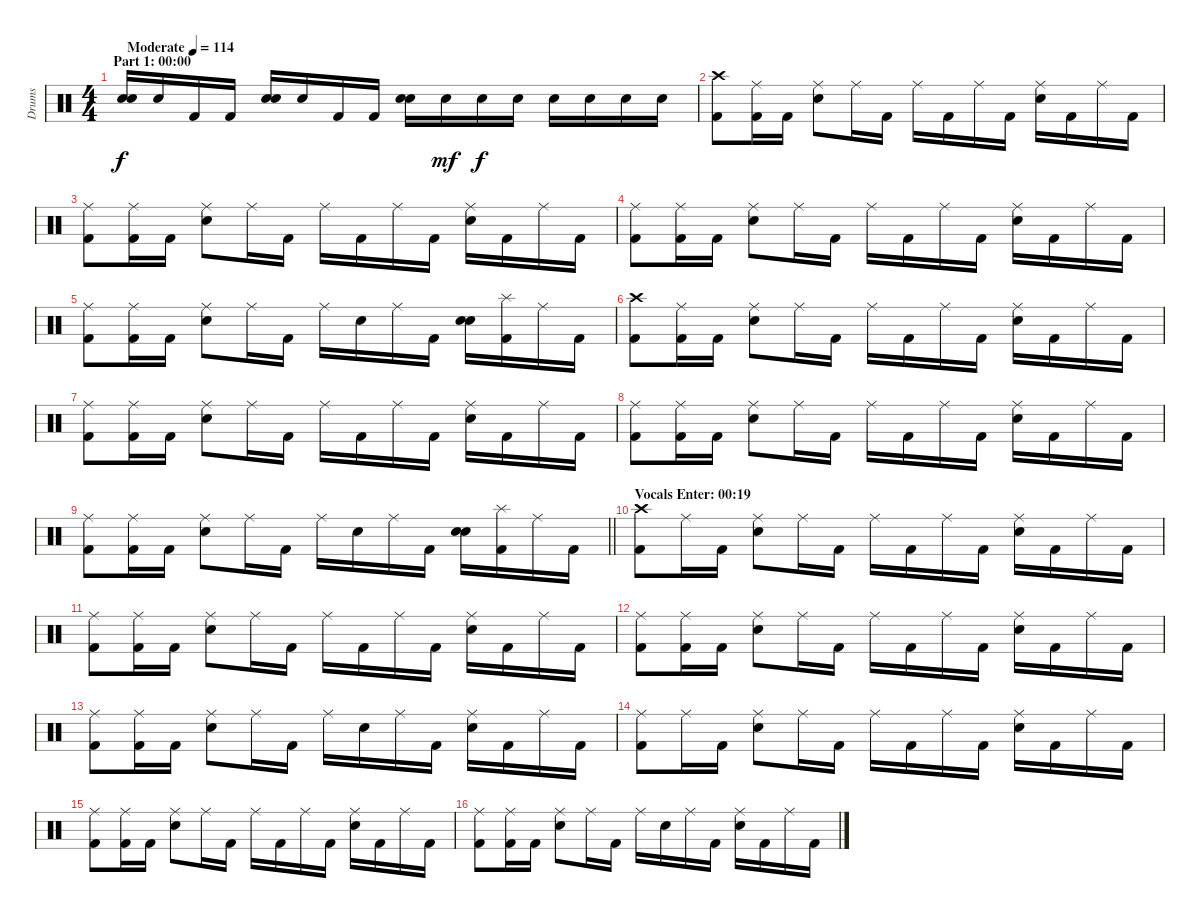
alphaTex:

\track ("Drums" "Drums") {instrument percussion}
\staff {score}
\articulation defaults
\ts (4 4)
\section ("" "Part 1: 00:00")
\tempo (114 "Moderate")
\clef neutral
\ks c
("Electric Snare (hit)" "Electric Snare (hit)").16{bd 60 dy f} "Electric Snare (hit)".16 "Kick (hit) 2".16 "Kick (hit) 2".16 ("Electric Snare (hit)" "Electric Snare (hit)").16{bd 60} "Electric Snare (hit)".16 "Kick (hit) 2".16 "Kick (hit) 2".16 ("Electric Snare (hit)" "Electric Snare (hit)").16{bd 60} "Electric Snare (hit)".16{dy mf} "Electric Snare (hit)".16{dy f} "Electric Snare (hit)".16 "Electric Snare (hit)".16 "Electric Snare (hit)".16 "Electric Snare (hit)".16 "Electric Snare (hit)".16 |
("Crash high (hit)" "Kick (hit) 2").8 ("Ride (middle)" "Kick (hit) 2").16 "Kick (hit) 2".16 ("Ride (middle)" "Electric Snare (hit)").8 "Ride (middle)".16 "Kick (hit) 2".16 "Ride (middle)".16 "Kick (hit) 2".16 "Ride (middle)".16 "Kick (hit) 2".16 ("Ride (middle)" "Electric Snare (hit)").16 "Kick (hit) 2".16 "Ride (middle)".16 "Kick (hit) 2".16 |
("Ride (middle)" "Kick (hit) 2").8 ("Ride (middle)" "Kick (hit) 2").16 "Kick (hit) 2".16 ("Ride (middle)" "Electric Snare (hit)").8 "Ride (middle)".16 "Kick (hit) 2".16 "Ride (middle)".16 "Kick (hit) 2".16 "Ride (middle)".16 "Kick (hit) 2".16 ("Ride (middle)" "Electric Snare (hit)").16 "Kick (hit) 2".16 "Ride (middle)".16 "Kick (hit) 2".16 |
("Ride (middle)" "Kick (hit) 2").8 ("Ride (middle)" "Kick (hit) 2").16 "Kick (hit) 2".16 ("Ride (middle)" "Electric Snare (hit)").8 "Ride (middle)".16 "Kick (hit) 2".16 "Ride (middle)".16 "Kick (hit) 2".16 "Ride (middle)".16 "Kick (hit) 2".16 ("Ride (middle)" "Electric Snare (hit)").16 "Kick (hit) 2".16 "Ride (middle)".16 "Kick (hit) 2".16 |
("Ride (middle)" "Kick (hit) 2").8 ("Ride (middle)" "Kick (hit) 2").16 "Kick (hit) 2".16 ("Ride (middle)" "Electric Snare (hit)").8 "Ride (middle)".16 "Kick (hit) 2".16 "Ride (middle)".16 "Electric Snare (hit)".16 "Ride (middle)".16 "Kick (hit) 2".16 ("Electric Snare (hit)" "Electric Snare (hit)").16{bd 60} ("Splash (hit)" "Kick (hit) 2").16 "Ride (middle)".16 "Kick (hit) 2".16 |
("Crash high (hit)" "Kick (hit) 2").8 ("Ride (middle)" "Kick (hit) 2").16 "Kick (hit) 2".16 ("Ride (middle)" "Electric Snare (hit)").8 "Ride (middle)".16 "Kick (hit) 2".16 "Ride (middle)".16 "Kick (hit) 2".16 "Ride (middle)".16 "Kick (hit) 2".16 ("Ride (middle)" "Electric Snare (hit)").16 "Kick (hit) 2".16 "Ride (middle)".16 "Kick (hit) 2".16 |
("Ride (middle)" "Kick (hit) 2").8 ("Ride (middle)" "Kick (hit) 2").16 "Kick (hit) 2".16 ("Ride (middle)" "Electric Snare (hit)").8 "Ride (middle)".16 "Kick (hit) 2".16 "Ride (middle)".16 "Kick (hit) 2".16 "Ride (middle)".16 "Kick (hit) 2".16 ("Ride (middle)" "Electric Snare (hit)").16 "Kick (hit) 2".16 "Ride (middle)".16 "Kick (hit) 2".16 |
("Ride (middle)" "Kick (hit) 2").8 ("Ride (middle)" "Kick (hit) 2").16 "Kick (hit) 2".16 ("Ride (middle)" "Electric Snare (hit)").8 "Ride (middle)".16 "Kick (hit) 2".16 "Ride (middle)".16 "Kick (hit) 2".16 "Ride (middle)".16 "Kick (hit) 2".16 ("Ride (middle)" "Electric Snare (hit)").16 "Kick (hit) 2".16 "Ride (middle)".16 "Kick (hit) 2".16 |
\barLineRight lightlight
("Ride (middle)" "Kick (hit) 2").8 ("Ride (middle)" "Kick (hit) 2").16 "Kick (hit) 2".16 ("Ride (middle)" "Electric Snare (hit)").8 "Ride (middle)".16 "Kick (hit) 2".16 "Ride (middle)".16 "Electric Snare (hit)".16 "Ride (middle)".16 "Kick (hit) 2".16 ("Electric Snare (hit)" "Electric Snare (hit)").16{bd 60} ("Splash (hit)" "Kick (hit) 2").16 "Ride (middle)".16 "Kick (hit) 2".16 |
\section ("" "Vocals Enter: 00:19")
("Crash high (hit)" "Kick (hit) 2").8 "Ride (middle)".16 "Kick (hit) 2".16 ("Ride (middle)" "Electric Snare (hit)").8 "Ride (middle)".16 "Kick (hit) 2".16 "Ride (middle)".16 "Kick (hit) 2".16 "Ride (middle)".16 "Kick (hit) 2".16 ("Ride (middle)" "Electric Snare (hit)").16 "Kick (hit) 2".16 "Ride (middle)".16 "Kick (hit) 2".16 |
("Ride (middle)" "Kick (hit) 2").8 ("Ride (middle)" "Kick (hit) 2").16 "Kick (hit) 2".16 ("Ride (middle)" "Electric Snare (hit)").8 "Ride (middle)".16 "Kick (hit) 2".16 "Ride (middle)".16 "Kick (hit) 2".16 "Ride (middle)".16 "Kick (hit) 2".16 ("Ride (middle)" "Electric Snare (hit)").16 "Kick (hit) 2".16 "Ride (middle)".16 "Kick (hit) 2".16 |
("Ride (middle)" "Kick (hit) 2").8 ("Ride (middle)" "Kick (hit) 2").16 "Kick (hit) 2".16 ("Ride (middle)" "Electric Snare (hit)").8 "Ride (middle)".16 "Kick (hit) 2".16 "Ride (middle)".16 "Kick (hit) 2".16 "Ride (middle)".16 "Kick (hit) 2".16 ("Ride (middle)" "Electric Snare (hit)").16 "Kick (hit) 2".16 "Ride (middle)".16 "Kick (hit) 2".16 |
("Ride (middle)" "Kick (hit) 2").8 ("Ride (middle)" "Kick (hit) 2").16 "Kick (hit) 2".16 ("Ride (middle)" "Electric Snare (hit)").8 "Ride (middle)".16 "Kick (hit) 2".16 "Ride (middle)".16 "Electric Snare (hit)".16 "Ride (middle)".16 "Kick (hit) 2".16 ("Ride (middle)" "Electric Snare (hit)").16 "Kick (hit) 2".16 "Ride (middle)".16 "Kick (hit) 2".16 |
("Ride (middle)" "Kick (hit) 2").8 "Ride (middle)".16 "Kick (hit) 2".16 ("Ride (middle)" "Electric Snare (hit)").8 "Ride (middle)".16 "Kick (hit) 2".16 "Ride (middle)".16 "Kick (hit) 2".16 "Ride (middle)".16 "Kick (hit) 2".16 ("Ride (middle)" "Electric Snare (hit)").16 "Kick (hit) 2".16 "Ride (middle)".16 "Kick (hit) 2".16 |
("Ride (middle)" "Kick (hit) 2").8 ("Ride (middle)" "Kick (hit) 2").16 "Kick (hit) 2".16 ("Ride (middle)" "Electric Snare (hit)").8 "Ride (middle)".16 "Kick (hit) 2".16 "Ride (middle)".16 "Kick (hit) 2".16 "Ride (middle)".16 "Kick (hit) 2".16 ("Ride (middle)" "Electric Snare (hit)").16 "Kick (hit) 2".16 "Ride (middle)".16 "Kick (hit) 2".16 |
("Ride (middle)" "Kick (hit) 2").8 ("Ride (middle)" "Kick (hit) 2").16 "Kick (hit) 2".16 ("Ride (middle)" "Electric Snare (hit)").8 "Ride (middle)".16 "Kick (hit) 2".16 "Ride (middle)".16 "Electric Snare (hit)".16 "Ride (middle)".16 "Kick (hit) 2".16 ("Ride (middle)" "Electric Snare (hit)").16 "Kick (hit) 2".16 "Ride (middle)".16 "Kick (hit) 2".16
